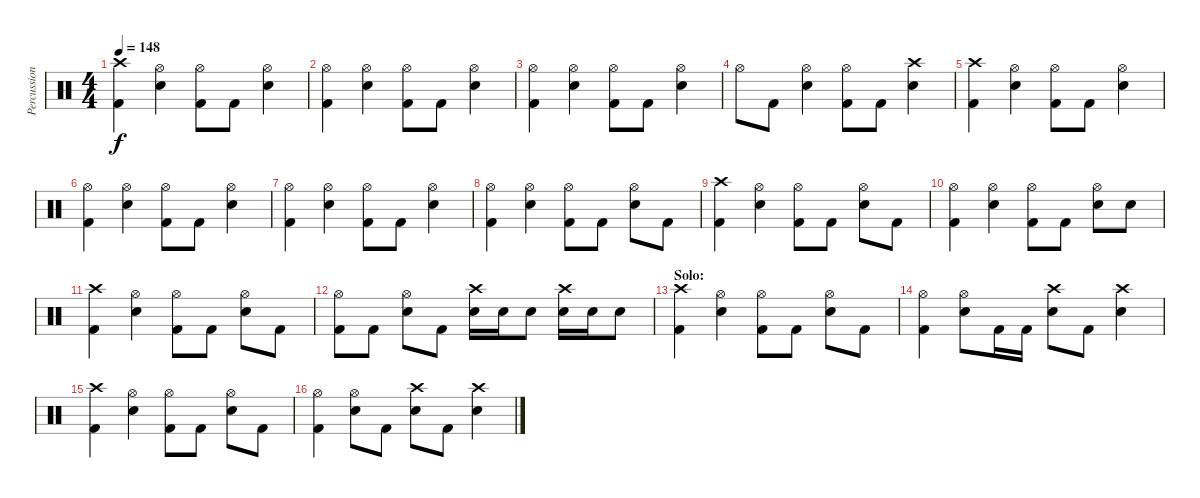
\track ("Percussion" "Percussion") {instrument percussion}
\staff {score}
\articulation defaults
\ts (4 4)
\tempo 148
\clef neutral
\ks c
("Crash high (hit)" "Kick (hit) 2").4{dy f} ("Hi-Hat (open)" "Electric Snare (hit)").4 ("Hi-Hat (open)" "Kick (hit) 2").8 "Kick (hit) 2".8 ("Hi-Hat (open)" "Electric Snare (hit)").4 |
("Hi-Hat (open)" "Kick (hit) 2").4 ("Hi-Hat (open)" "Electric Snare (hit)").4 ("Hi-Hat (open)" "Kick (hit) 2").8 "Kick (hit) 2".8 ("Hi-Hat (open)" "Electric Snare (hit)").4 |
("Hi-Hat (open)" "Kick (hit) 2").4 ("Hi-Hat (open)" "Electric Snare (hit)").4 ("Hi-Hat (open)" "Kick (hit) 2").8 "Kick (hit) 2".8 ("Hi-Hat (open)" "Electric Snare (hit)").4 |
"Hi-Hat (open)".8 "Kick (hit) 2".8 ("Hi-Hat (open)" "Electric Snare (hit)").4 ("Hi-Hat (open)" "Kick (hit) 2").8 "Kick (hit) 2".8 ("Crash high (hit)" "Electric Snare (hit)").4 |
("Crash high (hit)" "Kick (hit) 2").4 ("Hi-Hat (open)" "Electric Snare (hit)").4 ("Hi-Hat (open)" "Kick (hit) 2").8 "Kick (hit) 2".8 ("Hi-Hat (open)" "Electric Snare (hit)").4 |
("Hi-Hat (open)" "Kick (hit) 2").4 ("Hi-Hat (open)" "Electric Snare (hit)").4 ("Hi-Hat (open)" "Kick (hit) 2").8 "Kick (hit) 2".8 ("Hi-Hat (open)" "Electric Snare (hit)").4 |
("Hi-Hat (open)" "Kick (hit) 2").4 ("Hi-Hat (open)" "Electric Snare (hit)").4 ("Hi-Hat (open)" "Kick (hit) 2").8 "Kick (hit) 2".8 ("Hi-Hat (open)" "Electric Snare (hit)").4 |
("Hi-Hat (open)" "Kick (hit) 2").4 ("Hi-Hat (open)" "Electric Snare (hit)").4 ("Hi-Hat (open)" "Kick (hit) 2").8 "Kick (hit) 2".8 ("Hi-Hat (open)" "Electric Snare (hit)").8 "Kick (hit) 2".8 |
("Crash high (hit)" "Kick (hit) 2").4 ("Hi-Hat (open)" "Electric Snare (hit)").4 ("Hi-Hat (open)" "Kick (hit) 2").8 "Kick (hit) 2".8 ("Hi-Hat (open)" "Electric Snare (hit)").8 "Kick (hit) 2".8 |
("Hi-Hat (open)" "Kick (hit) 2").4 ("Hi-Hat (open)" "Electric Snare (hit)").4 ("Hi-Hat (open)" "Kick (hit) 2").8 "Kick (hit) 2".8 ("Hi-Hat (open)" "Electric Snare (hit)").8 "Electric Snare (hit)".8 |
("Crash high (hit)" "Kick (hit) 2").4 ("Hi-Hat (open)" "Electric Snare (hit)").4 ("Hi-Hat (open)" "Kick (hit) 2").8 "Kick (hit) 2".8 ("Hi-Hat (open)" "Electric Snare (hit)").8 "Kick (hit) 2".8 |
("Hi-Hat (open)" "Kick (hit) 2").8 "Kick (hit) 2".8 ("Hi-Hat (open)" "Electric Snare (hit)").8 "Kick (hit) 2".8 ("Crash high (hit)" "Electric Snare (hit)").16 "Electric Snare (hit)".16 "Electric Snare (hit)".8 ("Crash high (hit)" "Electric Snare (hit)").16 "Electric Snare (hit)".16 "Electric Snare (hit)".8 |
\section ("" "Solo:")
("Crash high (hit)" "Kick (hit) 2").4 ("Hi-Hat (open)" "Electric Snare (hit)").4 ("Hi-Hat (open)" "Kick (hit) 2").8 "Kick (hit) 2".8 ("Hi-Hat (open)" "Electric Snare (hit)").8 "Kick (hit) 2".8 |
("Hi-Hat (open)" "Kick (hit) 2").4 ("Hi-Hat (open)" "Electric Snare (hit)").8 "Kick (hit) 2".16 "Kick (hit) 2".16 ("Crash high (hit)" "Electric Snare (hit)").8 "Kick (hit) 2".8 ("Crash high (hit)" "Electric Snare (hit)").4 |
("Crash high (hit)" "Kick (hit) 2").4 ("Hi-Hat (open)" "Electric Snare (hit)").4 ("Hi-Hat (open)" "Kick (hit) 2").8 "Kick (hit) 2".8 ("Hi-Hat (open)" "Electric Snare (hit)").8 "Kick (hit) 2".8 |
("Hi-Hat (open)" "Kick (hit) 2").4 ("Hi-Hat (open)" "Electric Snare (hit)").8 "Kick (hit) 2".8 ("Crash high (hit)" "Electric Snare (hit)").8 "Kick (hit) 2".8 ("Crash high (hit)" "Electric Snare (hit)").4
